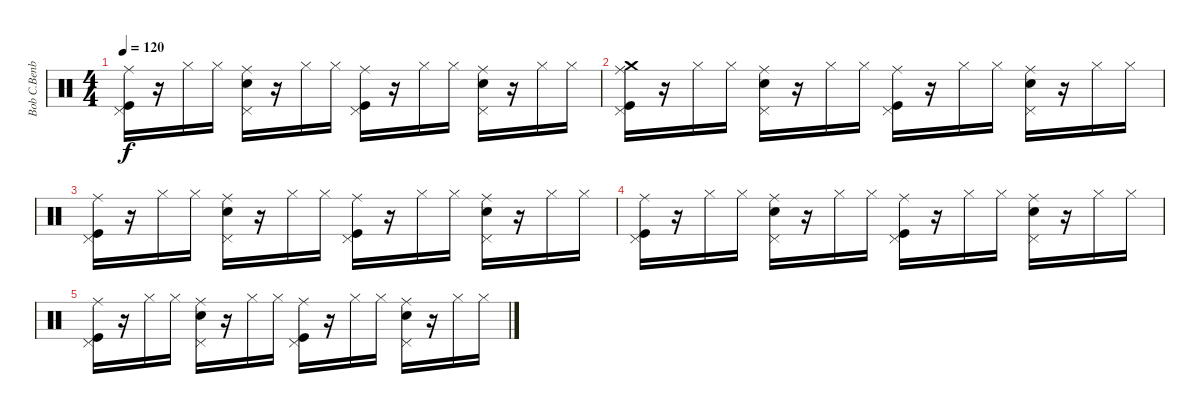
\track ("Bob C.Benberg (drums)" "Bob C.Benb") {instrument percussion}
\staff {score}
\articulation defaults
\ts (4 4)
\tempo 120
\clef neutral
\ks c
("Pedal Hi-Hat (hit)" "Kick (hit)" "Ride (middle)").16{dy f} r.16 "Hi-Hat (closed)".16 "Hi-Hat (closed)".16 ("Pedal Hi-Hat (hit)" "Snare (hit) 2" "Ride (middle)").16 r.16 "Hi-Hat (closed)".16 "Hi-Hat (closed)".16 ("Pedal Hi-Hat (hit)" "Kick (hit)" "Ride (middle)").16 r.16 "Hi-Hat (closed)".16 "Hi-Hat (closed)".16 ("Pedal Hi-Hat (hit)" "Snare (hit) 2" "Ride (middle)").16 r.16 "Hi-Hat (closed)".16 "Hi-Hat (closed)".16 |
("Pedal Hi-Hat (hit)" "Kick (hit)" "Ride (middle)" "Crash medium (hit)").16{volume 5} r.16 "Hi-Hat (closed)".16 "Hi-Hat (closed)".16 ("Pedal Hi-Hat (hit)" "Snare (hit) 2" "Ride (middle)").16 r.16 "Hi-Hat (closed)".16 "Hi-Hat (closed)".16 ("Pedal Hi-Hat (hit)" "Kick (hit)" "Ride (middle)").16 r.16 "Hi-Hat (closed)".16 "Hi-Hat (closed)".16 ("Pedal Hi-Hat (hit)" "Snare (hit) 2" "Ride (middle)").16 r.16 "Hi-Hat (closed)".16 "Hi-Hat (closed)".16 |
("Pedal Hi-Hat (hit)" "Kick (hit)" "Ride (middle)").16 r.16 "Hi-Hat (closed)".16 "Hi-Hat (closed)".16 ("Pedal Hi-Hat (hit)" "Snare (hit) 2" "Ride (middle)").16 r.16 "Hi-Hat (closed)".16 "Hi-Hat (closed)".16 ("Pedal Hi-Hat (hit)" "Kick (hit)" "Ride (middle)").16 r.16 "Hi-Hat (closed)".16 "Hi-Hat (closed)".16 ("Pedal Hi-Hat (hit)" "Snare (hit) 2" "Ride (middle)").16 r.16 "Hi-Hat (closed)".16 "Hi-Hat (closed)".16 |
("Pedal Hi-Hat (hit)" "Kick (hit)" "Ride (middle)").16{volume 0} r.16 "Hi-Hat (closed)".16 "Hi-Hat (closed)".16 ("Pedal Hi-Hat (hit)" "Snare (hit) 2" "Ride (middle)").16 r.16 "Hi-Hat (closed)".16 "Hi-Hat (closed)".16 ("Pedal Hi-Hat (hit)" "Kick (hit)" "Ride (middle)").16 r.16 "Hi-Hat (closed)".16 "Hi-Hat (closed)".16 ("Pedal Hi-Hat (hit)" "Snare (hit) 2" "Ride (middle)").16 r.16 "Hi-Hat (closed)".16 "Hi-Hat (closed)".16 |
("Pedal Hi-Hat (hit)" "Kick (hit)" "Ride (middle)").16 r.16 "Hi-Hat (closed)".16 "Hi-Hat (closed)".16 ("Pedal Hi-Hat (hit)" "Snare (hit) 2" "Ride (middle)").16 r.16 "Hi-Hat (closed)".16 "Hi-Hat (closed)".16 ("Pedal Hi-Hat (hit)" "Kick (hit)" "Ride (middle)").16 r.16 "Hi-Hat (closed)".16 "Hi-Hat (closed)".16 ("Pedal Hi-Hat (hit)" "Snare (hit) 2" "Ride (middle)").16 r.16 "Hi-Hat (closed)".16 "Hi-Hat (closed)".16
